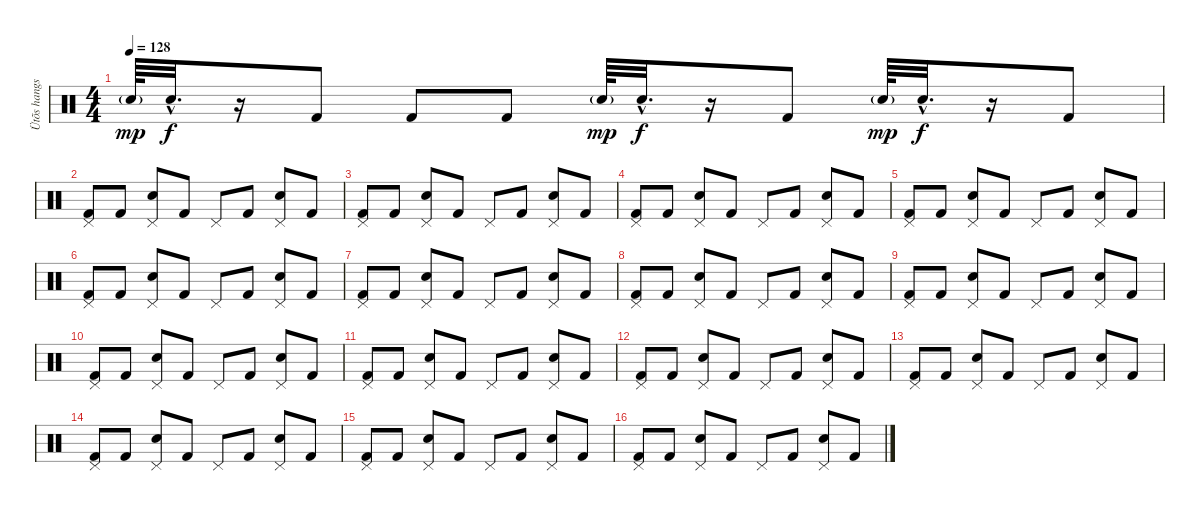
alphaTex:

\track ("Ütõs hangszer" "Ütõs hangs") {instrument percussion}
\staff {score}
\articulation defaults
\ts (4 4)
\tempo 128
\clef neutral
\ks c "Electric Snare (hit)"{g}.64{dy mp} "Electric Snare (hit)"{hac}.32{d dy f}
r.16 "Kick (hit) 2".8 "Kick (hit) 2".8 "Kick (hit) 2".8 "Electric Snare (hit)"{g}.64{dy mp} "Electric Snare (hit)"{hac}.32{d dy f} r.16 "Kick (hit) 2".8 "Electric Snare (hit)"{g}.64{dy mp} "Electric Snare (hit)"{hac}.32{d dy f} r.16 "Kick (hit) 2".8 |
("Kick (hit) 2" "Pedal Hi-Hat (hit)").8 "Kick (hit) 2".8 ("Electric Snare (hit)" "Pedal Hi-Hat (hit)").8 "Kick (hit) 2".8 "Pedal Hi-Hat (hit)".8 "Kick (hit) 2".8 ("Electric Snare (hit)" "Pedal Hi-Hat (hit)").8 "Kick (hit) 2".8 |
("Kick (hit) 2" "Pedal Hi-Hat (hit)").8 "Kick (hit) 2".8 ("Electric Snare (hit)" "Pedal Hi-Hat (hit)").8 "Kick (hit) 2".8 "Pedal Hi-Hat (hit)".8 "Kick (hit) 2".8 ("Electric Snare (hit)" "Pedal Hi-Hat (hit)").8 "Kick (hit) 2".8 |
("Kick (hit) 2" "Pedal Hi-Hat (hit)").8 "Kick (hit) 2".8 ("Electric Snare (hit)" "Pedal Hi-Hat (hit)").8 "Kick (hit) 2".8 "Pedal Hi-Hat (hit)".8 "Kick (hit) 2".8 ("Electric Snare (hit)" "Pedal Hi-Hat (hit)").8 "Kick (hit) 2".8 |
("Kick (hit) 2" "Pedal Hi-Hat (hit)").8 "Kick (hit) 2".8 ("Electric Snare (hit)" "Pedal Hi-Hat (hit)").8 "Kick (hit) 2".8 "Pedal Hi-Hat (hit)".8 "Kick (hit) 2".8 ("Electric Snare (hit)" "Pedal Hi-Hat (hit)").8 "Kick (hit) 2".8 |
("Kick (hit) 2" "Pedal Hi-Hat (hit)").8 "Kick (hit) 2".8 ("Electric Snare (hit)" "Pedal Hi-Hat (hit)").8 "Kick (hit) 2".8 "Pedal Hi-Hat (hit)".8 "Kick (hit) 2".8 ("Electric Snare (hit)" "Pedal Hi-Hat (hit)").8 "Kick (hit) 2".8 |
("Kick (hit) 2" "Pedal Hi-Hat (hit)").8 "Kick (hit) 2".8 ("Electric Snare (hit)" "Pedal Hi-Hat (hit)").8 "Kick (hit) 2".8 "Pedal Hi-Hat (hit)".8 "Kick (hit) 2".8 ("Electric Snare (hit)" "Pedal Hi-Hat (hit)").8 "Kick (hit) 2".8 |
("Kick (hit) 2" "Pedal Hi-Hat (hit)").8 "Kick (hit) 2".8 ("Electric Snare (hit)" "Pedal Hi-Hat (hit)").8 "Kick (hit) 2".8 "Pedal Hi-Hat (hit)".8 "Kick (hit) 2".8 ("Electric Snare (hit)" "Pedal Hi-Hat (hit)").8 "Kick (hit) 2".8 |
("Kick (hit) 2" "Pedal Hi-Hat (hit)").8 "Kick (hit) 2".8 ("Electric Snare (hit)" "Pedal Hi-Hat (hit)").8 "Kick (hit) 2".8 "Pedal Hi-Hat (hit)".8 "Kick (hit) 2".8 ("Electric Snare (hit)" "Pedal Hi-Hat (hit)").8 "Kick (hit) 2".8 |
("Kick (hit) 2" "Pedal Hi-Hat (hit)").8 "Kick (hit) 2".8 ("Electric Snare (hit)" "Pedal Hi-Hat (hit)").8 "Kick (hit) 2".8 "Pedal Hi-Hat (hit)".8 "Kick (hit) 2".8 ("Electric Snare (hit)" "Pedal Hi-Hat (hit)").8 "Kick (hit) 2".8 |
("Kick (hit) 2" "Pedal Hi-Hat (hit)").8 "Kick (hit) 2".8 ("Electric Snare (hit)" "Pedal Hi-Hat (hit)").8 "Kick (hit) 2".8 "Pedal Hi-Hat (hit)".8 "Kick (hit) 2".8 ("Electric Snare (hit)" "Pedal Hi-Hat (hit)").8 "Kick (hit) 2".8 |
("Kick (hit) 2" "Pedal Hi-Hat (hit)").8 "Kick (hit) 2".8 ("Electric Snare (hit)" "Pedal Hi-Hat (hit)").8 "Kick (hit) 2".8 "Pedal Hi-Hat (hit)".8 "Kick (hit) 2".8 ("Electric Snare (hit)" "Pedal Hi-Hat (hit)").8 "Kick (hit) 2".8 |
("Kick (hit) 2" "Pedal Hi-Hat (hit)").8 "Kick (hit) 2".8 ("Electric Snare (hit)" "Pedal Hi-Hat (hit)").8 "Kick (hit) 2".8 "Pedal Hi-Hat (hit)".8 "Kick (hit) 2".8 ("Electric Snare (hit)" "Pedal Hi-Hat (hit)").8 "Kick (hit) 2".8 |
("Kick (hit) 2" "Pedal Hi-Hat (hit)").8 "Kick (hit) 2".8 ("Electric Snare (hit)" "Pedal Hi-Hat (hit)").8 "Kick (hit) 2".8 "Pedal Hi-Hat (hit)".8 "Kick (hit) 2".8 ("Electric Snare (hit)" "Pedal Hi-Hat (hit)").8 "Kick (hit) 2".8 |
("Kick (hit) 2" "Pedal Hi-Hat (hit)").8 "Kick (hit) 2".8 ("Electric Snare (hit)" "Pedal Hi-Hat (hit)").8 "Kick (hit) 2".8 "Pedal Hi-Hat (hit)".8 "Kick (hit) 2".8 ("Electric Snare (hit)" "Pedal Hi-Hat (hit)").8 "Kick (hit) 2".8 |
("Kick (hit) 2" "Pedal Hi-Hat (hit)").8 "Kick (hit) 2".8 ("Electric Snare (hit)" "Pedal Hi-Hat (hit)").8 "Kick (hit) 2".8 "Pedal Hi-Hat (hit)".8 "Kick (hit) 2".8 ("Electric Snare (hit)" "Pedal Hi-Hat (hit)").8 "Kick (hit) 2".8
